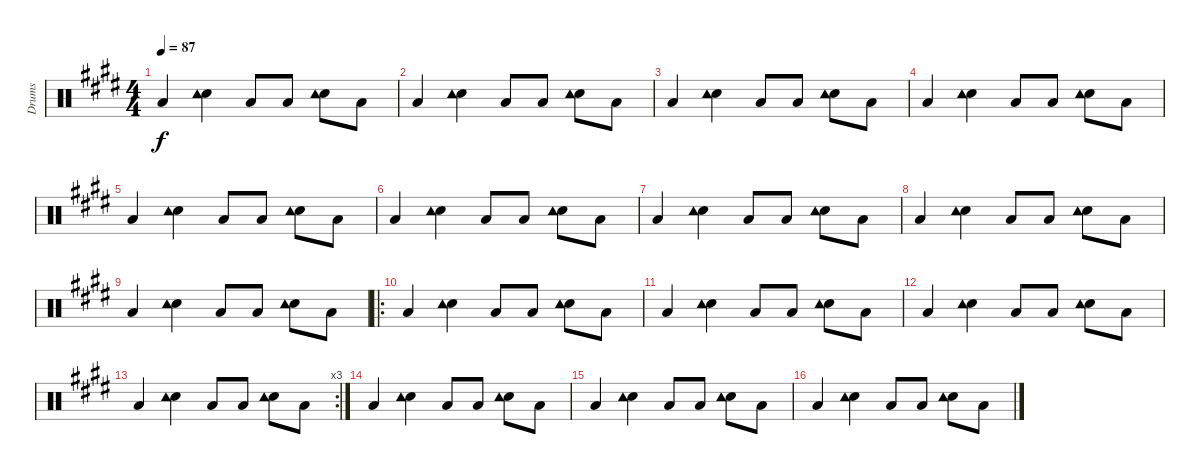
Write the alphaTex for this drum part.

\track ("Drums" "Drums") {instrument percussion}
\staff {score}
\articulation defaults
\ts (4 4)
\tempo 87
\clef neutral
\ks e "Low Floor Tom (hit)".4{dy f}
("Electric Snare (hit)" "Tambourine (hit)").4 "Low Floor Tom (hit)".8 "Low Floor Tom (hit)".8 ("Electric Snare (hit)" "Tambourine (hit)").8 "Low Floor Tom (hit)".8 |
"Low Floor Tom (hit)".4 ("Electric Snare (hit)" "Tambourine (hit)").4 "Low Floor Tom (hit)".8 "Low Floor Tom (hit)".8 ("Electric Snare (hit)" "Tambourine (hit)").8 "Low Floor Tom (hit)".8 |
"Low Floor Tom (hit)".4 ("Electric Snare (hit)" "Tambourine (hit)").4 "Low Floor Tom (hit)".8 "Low Floor Tom (hit)".8 ("Electric Snare (hit)" "Tambourine (hit)").8 "Low Floor Tom (hit)".8 |
"Low Floor Tom (hit)".4 ("Electric Snare (hit)" "Tambourine (hit)").4 "Low Floor Tom (hit)".8 "Low Floor Tom (hit)".8 ("Electric Snare (hit)" "Tambourine (hit)").8 "Low Floor Tom (hit)".8 |
"Low Floor Tom (hit)".4 ("Electric Snare (hit)" "Tambourine (hit)").4 "Low Floor Tom (hit)".8 "Low Floor Tom (hit)".8 ("Electric Snare (hit)" "Tambourine (hit)").8 "Low Floor Tom (hit)".8 |
"Low Floor Tom (hit)".4 ("Electric Snare (hit)" "Tambourine (hit)").4 "Low Floor Tom (hit)".8 "Low Floor Tom (hit)".8 ("Electric Snare (hit)" "Tambourine (hit)").8 "Low Floor Tom (hit)".8 |
"Low Floor Tom (hit)".4 ("Electric Snare (hit)" "Tambourine (hit)").4 "Low Floor Tom (hit)".8 "Low Floor Tom (hit)".8 ("Electric Snare (hit)" "Tambourine (hit)").8 "Low Floor Tom (hit)".8 |
"Low Floor Tom (hit)".4 ("Electric Snare (hit)" "Tambourine (hit)").4 "Low Floor Tom (hit)".8 "Low Floor Tom (hit)".8 ("Electric Snare (hit)" "Tambourine (hit)").8 "Low Floor Tom (hit)".8 |
"Low Floor Tom (hit)".4 ("Electric Snare (hit)" "Tambourine (hit)").4 "Low Floor Tom (hit)".8 "Low Floor Tom (hit)".8 ("Electric Snare (hit)" "Tambourine (hit)").8 "Low Floor Tom (hit)".8 |
\ro "Low Floor Tom (hit)".4
("Electric Snare (hit)" "Tambourine (hit)").4 "Low Floor Tom (hit)".8 "Low Floor Tom (hit)".8 ("Electric Snare (hit)" "Tambourine (hit)").8 "Low Floor Tom (hit)".8 |
"Low Floor Tom (hit)".4 ("Electric Snare (hit)" "Tambourine (hit)").4 "Low Floor Tom (hit)".8 "Low Floor Tom (hit)".8 ("Electric Snare (hit)" "Tambourine (hit)").8 "Low Floor Tom (hit)".8 |
"Low Floor Tom (hit)".4 ("Electric Snare (hit)" "Tambourine (hit)").4 "Low Floor Tom (hit)".8 "Low Floor Tom (hit)".8 ("Electric Snare (hit)" "Tambourine (hit)").8 "Low Floor Tom (hit)".8 |
\rc 3 "Low Floor Tom (hit)".4
("Electric Snare (hit)" "Tambourine (hit)").4 "Low Floor Tom (hit)".8 "Low Floor Tom (hit)".8 ("Electric Snare (hit)" "Tambourine (hit)").8 "Low Floor Tom (hit)".8 |
"Low Floor Tom (hit)".4{volume 2} ("Electric Snare (hit)" "Tambourine (hit)").4 "Low Floor Tom (hit)".8 "Low Floor Tom (hit)".8 ("Electric Snare (hit)" "Tambourine (hit)").8 "Low Floor Tom (hit)".8 |
"Low Floor Tom (hit)".4 ("Electric Snare (hit)" "Tambourine (hit)").4 "Low Floor Tom (hit)".8 "Low Floor Tom (hit)".8 ("Electric Snare (hit)" "Tambourine (hit)").8 "Low Floor Tom (hit)".8 |
"Low Floor Tom (hit)".4 ("Electric Snare (hit)" "Tambourine (hit)").4 "Low Floor Tom (hit)".8 "Low Floor Tom (hit)".8 ("Electric Snare (hit)" "Tambourine (hit)").8 "Low Floor Tom (hit)".8
